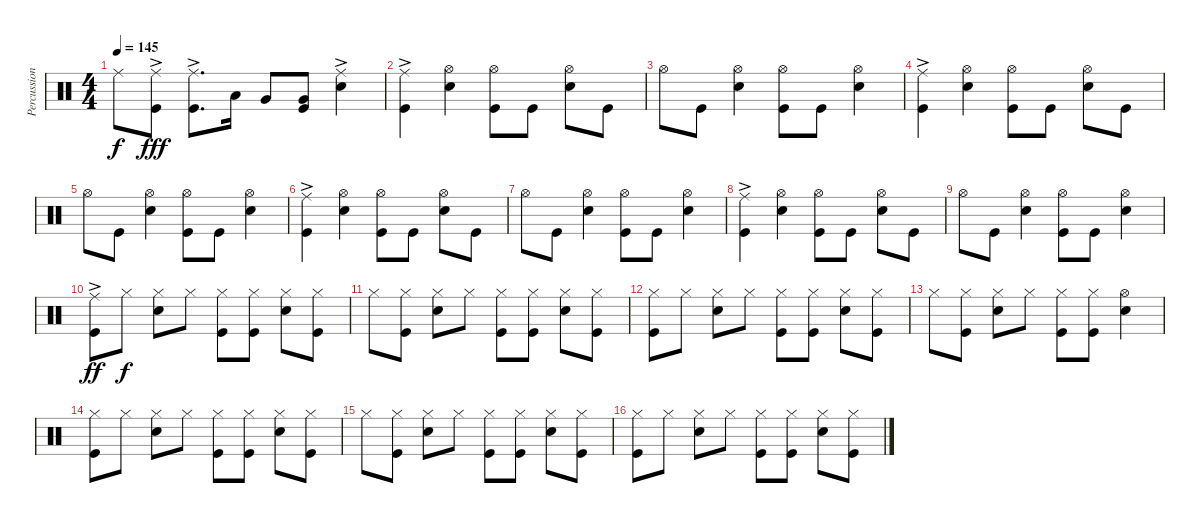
\track ("Percussion" "Percussion") {instrument percussion}
\staff {score}
\articulation defaults
\ts (4 4)
\tempo 145
\clef neutral
\ks c "Ride (middle)"{t}.8{dy f}
("Ride (middle)"{ac} "Kick (hit)").8{dy fff} ("Ride (middle)"{ac} "Kick (hit)").8{d} "Low Tom (hit)".16 "Very Low Tom (hit)".8 ("Very Low Tom (hit)" "Kick (hit)").8 ("Ride (middle)"{ac} "Snare (hit) 2").4 |
("Ride (middle)"{ac} "Kick (hit)").4 ("Hi-Hat (open)" "Snare (hit) 2").4 ("Hi-Hat (open)" "Kick (hit)").8 "Kick (hit)".8 ("Hi-Hat (open)" "Snare (hit) 2").8 "Kick (hit)".8 |
"Hi-Hat (open)".8 "Kick (hit)".8 ("Hi-Hat (open)" "Snare (hit) 2").4 ("Hi-Hat (open)" "Kick (hit)").8 "Kick (hit)".8 ("Hi-Hat (open)" "Snare (hit) 2").4 |
("Ride (middle)"{ac} "Kick (hit)").4 ("Hi-Hat (open)" "Snare (hit) 2").4 ("Hi-Hat (open)" "Kick (hit)").8 "Kick (hit)".8 ("Hi-Hat (open)" "Snare (hit) 2").8 "Kick (hit)".8 |
"Hi-Hat (open)".8 "Kick (hit)".8 ("Hi-Hat (open)" "Snare (hit) 2").4 ("Hi-Hat (open)" "Kick (hit)").8 "Kick (hit)".8 ("Hi-Hat (open)" "Snare (hit) 2").4 |
("Ride (middle)"{ac} "Kick (hit)").4 ("Hi-Hat (open)" "Snare (hit) 2").4 ("Hi-Hat (open)" "Kick (hit)").8 "Kick (hit)".8 ("Hi-Hat (open)" "Snare (hit) 2").8 "Kick (hit)".8 |
"Hi-Hat (open)".8 "Kick (hit)".8 ("Hi-Hat (open)" "Snare (hit) 2").4 ("Hi-Hat (open)" "Kick (hit)").8 "Kick (hit)".8 ("Hi-Hat (open)" "Snare (hit) 2").4 |
("Ride (middle)"{ac} "Kick (hit)").4 ("Hi-Hat (open)" "Snare (hit) 2").4 ("Hi-Hat (open)" "Kick (hit)").8 "Kick (hit)".8 ("Hi-Hat (open)" "Snare (hit) 2").8 "Kick (hit)".8 |
"Hi-Hat (open)".8 "Kick (hit)".8 ("Hi-Hat (open)" "Snare (hit) 2").4 ("Hi-Hat (open)" "Kick (hit)").8 "Kick (hit)".8 ("Hi-Hat (open)" "Snare (hit) 2").4 |
("Ride (middle)"{ac} "Kick (hit)").8{dy ff} "Hi-Hat (closed)".8{dy f} ("Hi-Hat (closed)" "Snare (hit) 2").8 "Hi-Hat (closed)".8 ("Hi-Hat (closed)" "Kick (hit)").8 ("Hi-Hat (closed)" "Kick (hit)").8 ("Hi-Hat (closed)" "Snare (hit) 2").8 ("Hi-Hat (closed)" "Kick (hit)").8 |
"Hi-Hat (closed)".8 ("Hi-Hat (closed)" "Kick (hit)").8 ("Hi-Hat (closed)" "Snare (hit) 2").8 "Hi-Hat (closed)".8 ("Hi-Hat (closed)" "Kick (hit)").8 ("Hi-Hat (closed)" "Kick (hit)").8 ("Hi-Hat (closed)" "Snare (hit) 2").8 ("Hi-Hat (closed)" "Kick (hit)").8 |
("Hi-Hat (closed)" "Kick (hit)").8 "Hi-Hat (closed)".8 ("Hi-Hat (closed)" "Snare (hit) 2").8 "Hi-Hat (closed)".8 ("Hi-Hat (closed)" "Kick (hit)").8 ("Hi-Hat (closed)" "Kick (hit)").8 ("Hi-Hat (closed)" "Snare (hit) 2").8 ("Hi-Hat (closed)" "Kick (hit)").8 |
"Hi-Hat (closed)".8 ("Hi-Hat (closed)" "Kick (hit)").8 ("Hi-Hat (closed)" "Snare (hit) 2").8 "Hi-Hat (closed)".8 ("Hi-Hat (closed)" "Kick (hit)").8 ("Hi-Hat (closed)" "Kick (hit)").8 ("Hi-Hat (open)" "Snare (hit) 2").4 |
("Hi-Hat (closed)" "Kick (hit)").8 "Hi-Hat (closed)".8 ("Hi-Hat (closed)" "Snare (hit) 2").8 "Hi-Hat (closed)".8 ("Hi-Hat (closed)" "Kick (hit)").8 ("Hi-Hat (closed)" "Kick (hit)").8 ("Hi-Hat (closed)" "Snare (hit) 2").8 ("Hi-Hat (closed)" "Kick (hit)").8 |
"Hi-Hat (closed)".8 ("Hi-Hat (closed)" "Kick (hit)").8 ("Hi-Hat (closed)" "Snare (hit) 2").8 "Hi-Hat (closed)".8 ("Hi-Hat (closed)" "Kick (hit)").8 ("Hi-Hat (closed)" "Kick (hit)").8 ("Hi-Hat (closed)" "Snare (hit) 2").8 ("Hi-Hat (closed)" "Kick (hit)").8 |
("Hi-Hat (closed)" "Kick (hit)").8 "Hi-Hat (closed)".8 ("Hi-Hat (closed)" "Snare (hit) 2").8 "Hi-Hat (closed)".8 ("Hi-Hat (closed)" "Kick (hit)").8 ("Hi-Hat (closed)" "Kick (hit)").8 ("Hi-Hat (closed)" "Snare (hit) 2").8 ("Hi-Hat (closed)" "Kick (hit)").8
